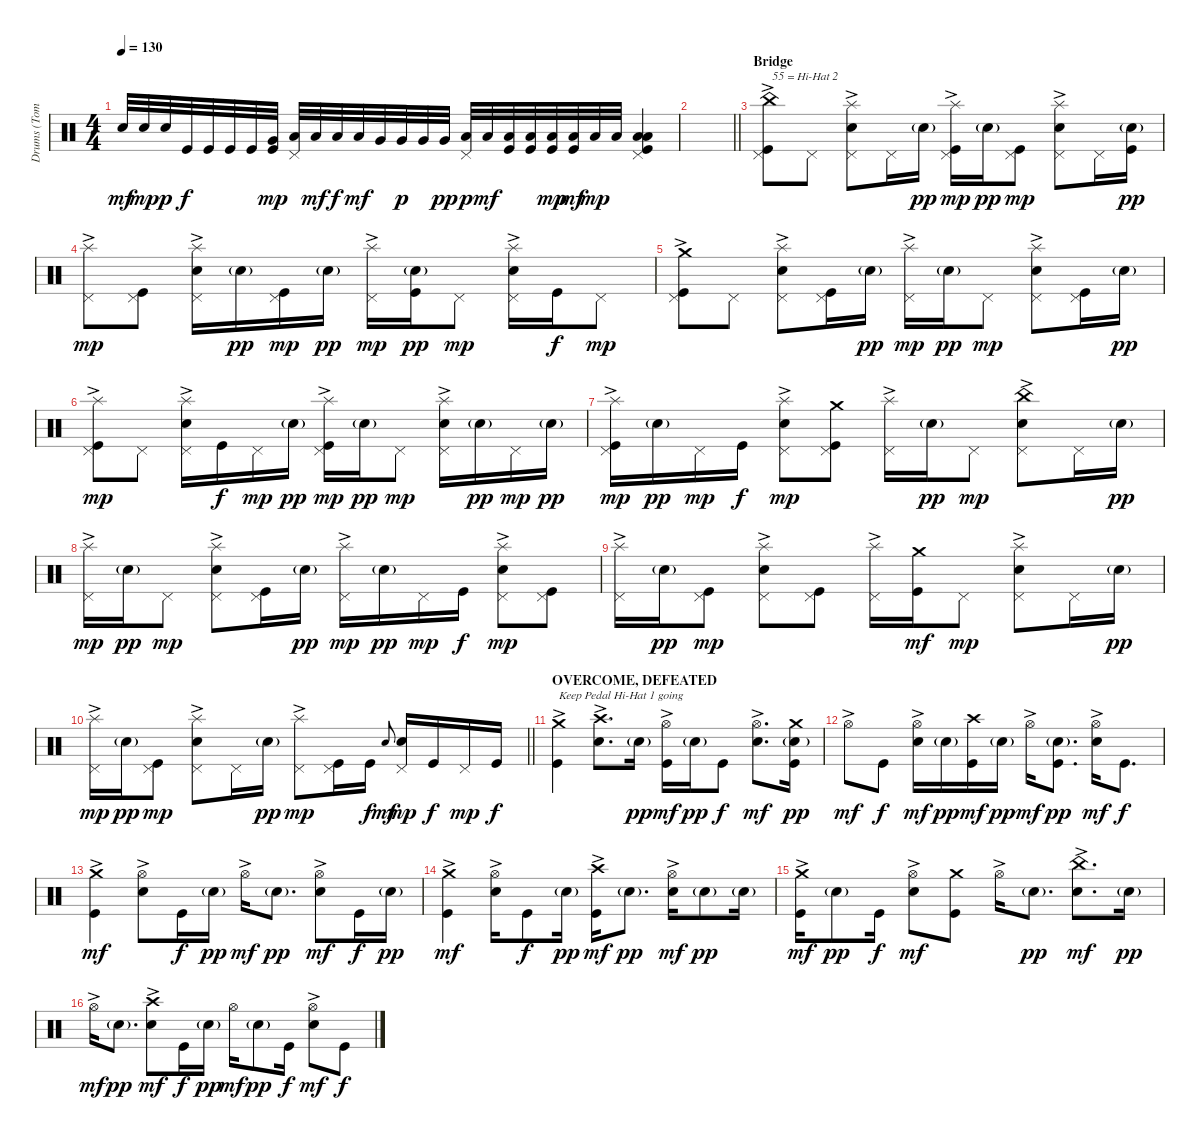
\track ("Drums (Tomas Haake)" "Drums (Tom") {instrument percussion}
\staff {score}
\articulation defaults
\ts (4 4)
\tempo 130
\clef neutral
\ks c "Electric Snare (hit)".32{dy mf} "Electric Snare (hit)".32{dy mp} "Electric Snare (hit)".32{dy p} "Kick (hit)".32{dy f} "Kick (hit)".32 "Kick (hit)".32 "Kick (hit)".32
("Very Low Tom (hit)" "Kick (hit)").32{dy mp} ("Pedal Hi-Hat (hit)" "Low Tom (hit)").32 "Low Tom (hit)".32{dy mf} "Low Tom (hit)".32{dy f} "Low Tom (hit)".32{dy mf} "Very Low Tom (hit)".32 "Very Low Tom (hit)".32{dy p} "Very Low Tom (hit)".32 "Very Low Tom (hit)".32{dy pp} ("Pedal Hi-Hat (hit)" "Low Floor Tom (hit)").32{dy p} "Low Floor Tom (hit)".32{dy mf} ("Low Floor Tom (hit)" "Kick (hit)").32 ("Low Floor Tom (hit)" "Kick (hit)").32 ("Low Floor Tom (hit)" "Kick (hit)").32{dy mp} ("Low Floor Tom (hit)" "Kick (hit)").32{dy mf} "Low Floor Tom (hit)".32{dy mp} "Low Floor Tom (hit)".32 ("Pedal Hi-Hat (hit)" "Low Floor Tom (hit)" "Low Floor Tom (hit)" "Kick (hit)").4 |
\barLineRight lightlight
|
\section ("" "Bridge")
("China (hit)"{ac} "Pedal Hi-Hat (hit)" "Kick (hit)").8{txt "55 = Hi-Hat 2"} "Pedal Hi-Hat (hit)".8 ("Splash (hit)"{ac} "Pedal Hi-Hat (hit)" "Electric Snare (hit)").8 "Pedal Hi-Hat (hit)".16 "Electric Snare (hit)"{g}.16{dy pp} ("Splash (hit)"{ac} "Pedal Hi-Hat (hit)" "Kick (hit)").16{dy mp} "Electric Snare (hit)"{g}.16{dy pp} ("Pedal Hi-Hat (hit)" "Kick (hit)").8{dy mp} ("Splash (hit)"{ac} "Pedal Hi-Hat (hit)" "Electric Snare (hit)").8 "Pedal Hi-Hat (hit)".16 ("Electric Snare (hit)"{g} "Kick (hit)").16{dy pp} |
("Splash (hit)"{ac} "Pedal Hi-Hat (hit)").8{dy mp} ("Pedal Hi-Hat (hit)" "Kick (hit)").8 ("Splash (hit)"{ac} "Pedal Hi-Hat (hit)" "Electric Snare (hit)").16 "Electric Snare (hit)"{g}.16{dy pp} ("Pedal Hi-Hat (hit)" "Kick (hit)").16{dy mp} "Electric Snare (hit)"{g}.16{dy pp} ("Splash (hit)"{ac} "Pedal Hi-Hat (hit)").16{dy mp} ("Electric Snare (hit)"{g} "Kick (hit)").16{dy pp} "Pedal Hi-Hat (hit)".8{dy mp} ("Splash (hit)"{ac} "Pedal Hi-Hat (hit)" "Electric Snare (hit)").16 "Kick (hit)".16{dy f} "Pedal Hi-Hat (hit)".8{dy mp} |
("Crash medium (hit)"{ac} "Pedal Hi-Hat (hit)" "Kick (hit)").8 "Pedal Hi-Hat (hit)".8 ("Splash (hit)"{ac} "Pedal Hi-Hat (hit)" "Electric Snare (hit)").8 ("Pedal Hi-Hat (hit)" "Kick (hit)").16 "Electric Snare (hit)"{g}.16{dy pp} ("Splash (hit)"{ac} "Pedal Hi-Hat (hit)").16{dy mp} "Electric Snare (hit)"{g}.16{dy pp} "Pedal Hi-Hat (hit)".8{dy mp} ("Splash (hit)"{ac} "Pedal Hi-Hat (hit)" "Electric Snare (hit)").8 ("Pedal Hi-Hat (hit)" "Kick (hit)").16 "Electric Snare (hit)"{g}.16{dy pp} |
("Splash (hit)"{ac} "Pedal Hi-Hat (hit)" "Kick (hit)").8{dy mp} "Pedal Hi-Hat (hit)".8 ("Splash (hit)"{ac} "Pedal Hi-Hat (hit)" "Electric Snare (hit)").16 "Kick (hit)".16{dy f} "Pedal Hi-Hat (hit)".16{dy mp} "Electric Snare (hit)"{g}.16{dy pp} ("Splash (hit)"{ac} "Pedal Hi-Hat (hit)" "Kick (hit)").16{dy mp} "Electric Snare (hit)"{g}.16{dy pp} "Pedal Hi-Hat (hit)".8{dy mp} ("Splash (hit)"{ac} "Pedal Hi-Hat (hit)" "Electric Snare (hit)").16 "Electric Snare (hit)"{g}.16{dy pp} "Pedal Hi-Hat (hit)".16{dy mp} "Electric Snare (hit)"{g}.16{dy pp} |
("Splash (hit)"{ac} "Pedal Hi-Hat (hit)" "Kick (hit)").16{dy mp} "Electric Snare (hit)"{g}.16{dy pp} "Pedal Hi-Hat (hit)".16{dy mp} "Kick (hit)".16{dy f} ("Splash (hit)"{ac} "Pedal Hi-Hat (hit)" "Electric Snare (hit)").8{dy mp} ("Crash medium (hit)" "Pedal Hi-Hat (hit)" "Kick (hit)").8 ("Splash (hit)"{ac} "Pedal Hi-Hat (hit)").16 "Electric Snare (hit)"{g}.16{dy pp} "Pedal Hi-Hat (hit)".8{dy mp} ("China (hit)"{ac} "Pedal Hi-Hat (hit)" "Electric Snare (hit)").8 "Pedal Hi-Hat (hit)".16 "Electric Snare (hit)"{g}.16{dy pp} |
("Splash (hit)"{ac} "Pedal Hi-Hat (hit)").16{dy mp} "Electric Snare (hit)"{g}.16{dy pp} "Pedal Hi-Hat (hit)".8{dy mp} ("Splash (hit)"{ac} "Pedal Hi-Hat (hit)" "Electric Snare (hit)").8 ("Pedal Hi-Hat (hit)" "Kick (hit)").16 "Electric Snare (hit)"{g}.16{dy pp} ("Splash (hit)"{ac} "Pedal Hi-Hat (hit)").16{dy mp} "Electric Snare (hit)"{g}.16{dy pp} "Pedal Hi-Hat (hit)".16{dy mp} "Kick (hit)".16{dy f} ("Splash (hit)"{ac} "Pedal Hi-Hat (hit)" "Electric Snare (hit)").8{dy mp} ("Pedal Hi-Hat (hit)" "Kick (hit)").8 |
("Splash (hit)"{ac} "Pedal Hi-Hat (hit)").16 "Electric Snare (hit)"{g}.16{dy pp} ("Pedal Hi-Hat (hit)" "Kick (hit)").8{dy mp} ("Splash (hit)"{ac} "Pedal Hi-Hat (hit)" "Electric Snare (hit)").8 ("Pedal Hi-Hat (hit)" "Kick (hit)").8 ("Splash (hit)"{ac} "Pedal Hi-Hat (hit)").16 ("Crash medium (hit)" "Kick (hit)").16{dy mf} "Pedal Hi-Hat (hit)".8{dy mp} ("Splash (hit)"{ac} "Pedal Hi-Hat (hit)" "Electric Snare (hit)").8 "Pedal Hi-Hat (hit)".16 "Electric Snare (hit)"{g}.16{dy pp} |
\barLineRight lightlight
("Splash (hit)"{ac} "Pedal Hi-Hat (hit)").16{dy mp} "Electric Snare (hit)"{g}.16{dy pp} ("Pedal Hi-Hat (hit)" "Kick (hit)").8{dy mp} ("Splash (hit)"{ac} "Pedal Hi-Hat (hit)" "Electric Snare (hit)").8 "Pedal Hi-Hat (hit)".16 "Electric Snare (hit)"{g}.16{dy pp} ("Splash (hit)"{ac} "Pedal Hi-Hat (hit)").8{dy mp} ("Pedal Hi-Hat (hit)" "Kick (hit)").16 "Kick (hit)".16{dy f} "Electric Snare (hit)".8{gr onbeat dy mf} ("Pedal Hi-Hat (hit)" "Electric Snare (hit)").16{dy mp} "Kick (hit)".16{dy f} "Pedal Hi-Hat (hit)".16{dy mp} "Kick (hit)".16{dy f} |
\section ("" "OVERCOME, DEFEATED")
("Crash medium (hit)"{ac} "Kick (hit)").4{txt "Keep Pedal Hi-Hat 1 going"} ("Crash high (hit)"{ac} "Electric Snare (hit)").8{d} "Electric Snare (hit)"{g}.16{dy pp} ("Hi-Hat (open)"{ac} "Kick (hit)").16{dy mf} "Electric Snare (hit)"{g}.16{dy pp} "Kick (hit)".8{dy f} ("Hi-Hat (open)"{ac} "Electric Snare (hit)").8{d dy mf} ("Crash medium (hit)" "Electric Snare (hit)"{g} "Kick (hit)").16{dy pp} |
"Hi-Hat (open)"{ac}.8{dy mf} "Kick (hit)".8{dy f} ("Hi-Hat (open)"{ac} "Electric Snare (hit)").16{dy mf} "Electric Snare (hit)"{g}.16{dy pp} ("Crash high (hit)" "Kick (hit)").16{dy mf} "Electric Snare (hit)"{g}.16{dy pp} "Hi-Hat (open)"{ac}.16{dy mf} ("Electric Snare (hit)"{g} "Kick (hit)").8{d dy pp} ("Hi-Hat (open)"{ac} "Electric Snare (hit)").16{dy mf} "Kick (hit)".8{d dy f} |
("Crash medium (hit)"{ac} "Kick (hit)").4{dy mf} ("Hi-Hat (open)"{ac} "Electric Snare (hit)").8 "Kick (hit)".16{dy f} "Electric Snare (hit)"{g}.16{dy pp} "Hi-Hat (open)"{ac}.16{dy mf} "Electric Snare (hit)"{g}.8{d dy pp} ("Hi-Hat (open)"{ac} "Electric Snare (hit)").8{dy mf} "Kick (hit)".16{dy f} "Electric Snare (hit)"{g}.16{dy pp} |
("Crash medium (hit)"{ac} "Kick (hit)").4{dy mf} ("Hi-Hat (open)"{ac} "Electric Snare (hit)").16 "Kick (hit)".8{dy f} "Electric Snare (hit)"{g}.16{dy pp} ("Crash high (hit)"{ac} "Kick (hit)").16{dy mf} "Electric Snare (hit)"{g}.8{d dy pp} ("Hi-Hat (open)"{ac} "Electric Snare (hit)").16{dy mf} "Electric Snare (hit)"{g}.8{dy pp} "Electric Snare (hit)"{g}.16 |
("Crash medium (hit)"{ac} "Kick (hit)").16{dy mf} "Electric Snare (hit)"{g}.8{dy pp} "Kick (hit)".16{dy f} ("Hi-Hat (open)"{ac} "Electric Snare (hit)").8{dy mf} ("Crash medium (hit)" "Kick (hit)").8 "Hi-Hat (open)"{ac}.16 "Electric Snare (hit)"{g}.8{d dy pp} ("China (hit)"{ac} "Electric Snare (hit)").8{d dy mf} "Electric Snare (hit)"{g}.16{dy pp} |
"Hi-Hat (open)"{ac}.16{dy mf} "Electric Snare (hit)"{g}.8{d dy pp} ("Crash high (hit)"{ac} "Electric Snare (hit)").8{dy mf} "Kick (hit)".16{dy f} "Electric Snare (hit)"{g}.16{dy pp} "Hi-Hat (open)".16{dy mf} "Electric Snare (hit)"{g}.8{dy pp} "Kick (hit)".16{dy f} ("Hi-Hat (open)"{ac} "Electric Snare (hit)").8{dy mf} "Kick (hit)".8{dy f}
